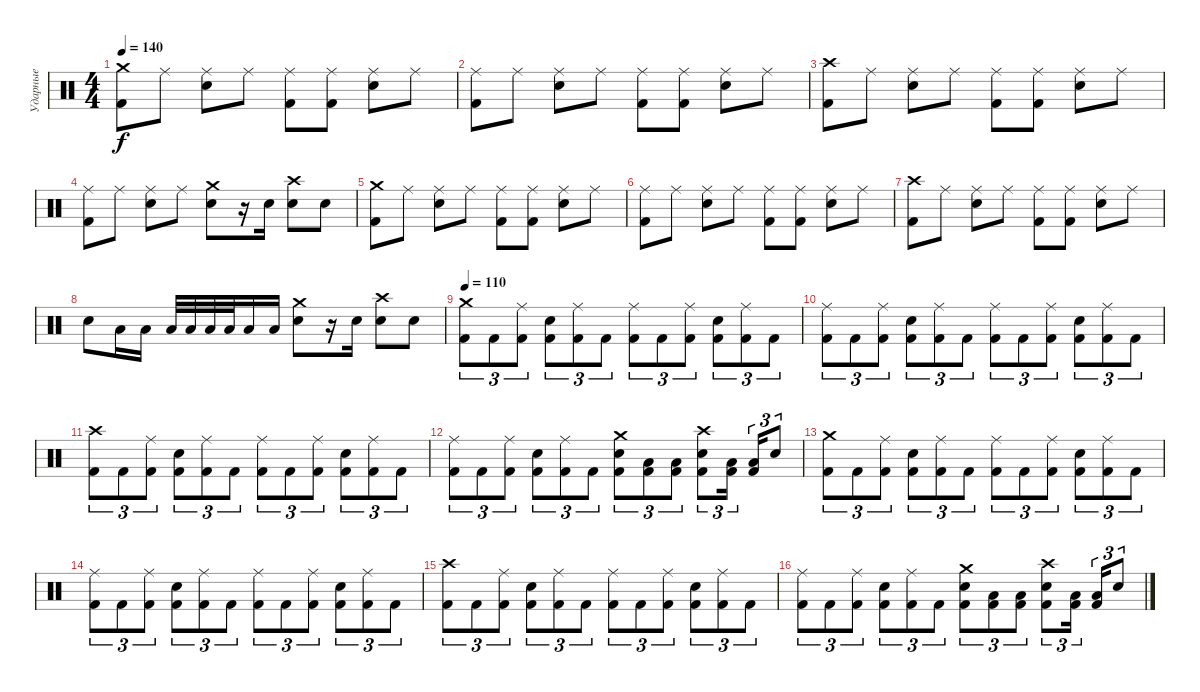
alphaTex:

\track ("Ударные" "Ударные") {instrument percussion}
\staff {score}
\articulation defaults
\ts (4 4)
\tempo 140
\clef neutral
\ks c
("Crash medium (hit)" "Kick (hit) 2").8{dy f} "Ride (middle)".8 ("Ride (middle)" "Electric Snare (hit)").8 "Ride (middle)".8 ("Ride (middle)" "Kick (hit) 2").8 ("Ride (middle)" "Kick (hit) 2").8 ("Ride (middle)" "Electric Snare (hit)").8 "Ride (middle)".8 |
("Ride (middle)" "Kick (hit) 2").8 "Ride (middle)".8 ("Ride (middle)" "Electric Snare (hit)").8 "Ride (middle)".8 ("Ride (middle)" "Kick (hit) 2").8 ("Ride (middle)" "Kick (hit) 2").8 ("Ride (middle)" "Electric Snare (hit)").8 "Ride (middle)".8 |
("Crash high (hit)" "Kick (hit) 2").8 "Ride (middle)".8 ("Ride (middle)" "Electric Snare (hit)").8 "Ride (middle)".8 ("Ride (middle)" "Kick (hit) 2").8 ("Ride (middle)" "Kick (hit) 2").8 ("Ride (middle)" "Electric Snare (hit)").8 "Ride (middle)".8 |
("Ride (middle)" "Kick (hit) 2").8 "Ride (middle)".8 ("Ride (middle)" "Electric Snare (hit)").8 "Ride (middle)".8 ("Crash medium (hit)" "Electric Snare (hit)").8 r.16 "Electric Snare (hit)".16 ("Crash high (hit)" "Electric Snare (hit)").8 "Electric Snare (hit)".8 |
("Crash medium (hit)" "Kick (hit) 2").8 "Ride (middle)".8 ("Ride (middle)" "Electric Snare (hit)").8 "Ride (middle)".8 ("Ride (middle)" "Kick (hit) 2").8 ("Ride (middle)" "Kick (hit) 2").8 ("Ride (middle)" "Electric Snare (hit)").8 "Ride (middle)".8 |
("Ride (middle)" "Kick (hit) 2").8 "Ride (middle)".8 ("Ride (middle)" "Electric Snare (hit)").8 "Ride (middle)".8 ("Ride (middle)" "Kick (hit) 2").8 ("Ride (middle)" "Kick (hit) 2").8 ("Ride (middle)" "Electric Snare (hit)").8 "Ride (middle)".8 |
("Crash high (hit)" "Kick (hit) 2").8 "Ride (middle)".8 ("Ride (middle)" "Electric Snare (hit)").8 "Ride (middle)".8 ("Ride (middle)" "Kick (hit) 2").8 ("Ride (middle)" "Kick (hit) 2").8 ("Ride (middle)" "Electric Snare (hit)").8 "Ride (middle)".8 |
"Electric Snare (hit)".8 "Low Tom (hit)".16 "Low Tom (hit)".16 "Low Tom (hit)".32 "Low Tom (hit)".32 "Low Tom (hit)".32 "Low Tom (hit)".32 "Low Tom (hit)".16 "Low Tom (hit)".16 ("Crash medium (hit)" "Electric Snare (hit)").8 r.16 "Electric Snare (hit)".16 ("Crash high (hit)" "Electric Snare (hit)").8 "Electric Snare (hit)".8 |
\tempo 110
("Crash medium (hit)" "Kick (hit) 2").8{tu (3 2)} "Kick (hit) 2".8{tu (3 2)} ("Ride (middle)" "Kick (hit) 2").8{tu (3 2)} ("Electric Snare (hit)" "Kick (hit) 2").8{tu (3 2)} ("Ride (middle)" "Kick (hit) 2").8{tu (3 2)} "Kick (hit) 2".8{tu (3 2)} ("Ride (middle)" "Kick (hit) 2").8{tu (3 2)} "Kick (hit) 2".8{tu (3 2)} ("Ride (middle)" "Kick (hit) 2").8{tu (3 2)} ("Electric Snare (hit)" "Kick (hit) 2").8{tu (3 2)} ("Ride (middle)" "Kick (hit) 2").8{tu (3 2)} "Kick (hit) 2".8{tu (3 2)} |
("Ride (middle)" "Kick (hit) 2").8{tu (3 2)} "Kick (hit) 2".8{tu (3 2)} ("Ride (middle)" "Kick (hit) 2").8{tu (3 2)} ("Electric Snare (hit)" "Kick (hit) 2").8{tu (3 2)} ("Ride (middle)" "Kick (hit) 2").8{tu (3 2)} "Kick (hit) 2".8{tu (3 2)} ("Ride (middle)" "Kick (hit) 2").8{tu (3 2)} "Kick (hit) 2".8{tu (3 2)} ("Ride (middle)" "Kick (hit) 2").8{tu (3 2)} ("Electric Snare (hit)" "Kick (hit) 2").8{tu (3 2)} ("Ride (middle)" "Kick (hit) 2").8{tu (3 2)} "Kick (hit) 2".8{tu (3 2)} |
("Crash high (hit)" "Kick (hit) 2").8{tu (3 2)} "Kick (hit) 2".8{tu (3 2)} ("Ride (middle)" "Kick (hit) 2").8{tu (3 2)} ("Electric Snare (hit)" "Kick (hit) 2").8{tu (3 2)} ("Ride (middle)" "Kick (hit) 2").8{tu (3 2)} "Kick (hit) 2".8{tu (3 2)} ("Ride (middle)" "Kick (hit) 2").8{tu (3 2)} "Kick (hit) 2".8{tu (3 2)} ("Ride (middle)" "Kick (hit) 2").8{tu (3 2)} ("Electric Snare (hit)" "Kick (hit) 2").8{tu (3 2)} ("Ride (middle)" "Kick (hit) 2").8{tu (3 2)} "Kick (hit) 2".8{tu (3 2)} |
("Ride (middle)" "Kick (hit) 2").8{tu (3 2)} "Kick (hit) 2".8{tu (3 2)} ("Ride (middle)" "Kick (hit) 2").8{tu (3 2)} ("Electric Snare (hit)" "Kick (hit) 2").8{tu (3 2)} ("Ride (middle)" "Kick (hit) 2").8{tu (3 2)} "Kick (hit) 2".8{tu (3 2)} ("Crash medium (hit)" "Electric Snare (hit)" "Kick (hit) 2").8{tu (3 2)} ("Low Tom (hit)" "Kick (hit) 2").8{tu (3 2)} ("Low Tom (hit)" "Kick (hit) 2").8{tu (3 2)} ("Crash high (hit)" "Electric Snare (hit)" "Kick (hit) 2").8{tu (3 2)} ("Low Tom (hit)" "Kick (hit) 2").16{tu (3 2)} ("Low Tom (hit)" "Kick (hit) 2").16{tu (3 2)} "Electric Snare (hit)".8{tu (3 2)} |
("Crash medium (hit)" "Kick (hit) 2").8{tu (3 2)} "Kick (hit) 2".8{tu (3 2)} ("Ride (middle)" "Kick (hit) 2").8{tu (3 2)} ("Electric Snare (hit)" "Kick (hit) 2").8{tu (3 2)} ("Ride (middle)" "Kick (hit) 2").8{tu (3 2)} "Kick (hit) 2".8{tu (3 2)} ("Ride (middle)" "Kick (hit) 2").8{tu (3 2)} "Kick (hit) 2".8{tu (3 2)} ("Ride (middle)" "Kick (hit) 2").8{tu (3 2)} ("Electric Snare (hit)" "Kick (hit) 2").8{tu (3 2)} ("Ride (middle)" "Kick (hit) 2").8{tu (3 2)} "Kick (hit) 2".8{tu (3 2)} |
("Ride (middle)" "Kick (hit) 2").8{tu (3 2)} "Kick (hit) 2".8{tu (3 2)} ("Ride (middle)" "Kick (hit) 2").8{tu (3 2)} ("Electric Snare (hit)" "Kick (hit) 2").8{tu (3 2)} ("Ride (middle)" "Kick (hit) 2").8{tu (3 2)} "Kick (hit) 2".8{tu (3 2)} ("Ride (middle)" "Kick (hit) 2").8{tu (3 2)} "Kick (hit) 2".8{tu (3 2)} ("Ride (middle)" "Kick (hit) 2").8{tu (3 2)} ("Electric Snare (hit)" "Kick (hit) 2").8{tu (3 2)} ("Ride (middle)" "Kick (hit) 2").8{tu (3 2)} "Kick (hit) 2".8{tu (3 2)} |
("Crash high (hit)" "Kick (hit) 2").8{tu (3 2)} "Kick (hit) 2".8{tu (3 2)} ("Ride (middle)" "Kick (hit) 2").8{tu (3 2)} ("Electric Snare (hit)" "Kick (hit) 2").8{tu (3 2)} ("Ride (middle)" "Kick (hit) 2").8{tu (3 2)} "Kick (hit) 2".8{tu (3 2)} ("Ride (middle)" "Kick (hit) 2").8{tu (3 2)} "Kick (hit) 2".8{tu (3 2)} ("Ride (middle)" "Kick (hit) 2").8{tu (3 2)} ("Electric Snare (hit)" "Kick (hit) 2").8{tu (3 2)} ("Ride (middle)" "Kick (hit) 2").8{tu (3 2)} "Kick (hit) 2".8{tu (3 2)} |
("Ride (middle)" "Kick (hit) 2").8{tu (3 2)} "Kick (hit) 2".8{tu (3 2)} ("Ride (middle)" "Kick (hit) 2").8{tu (3 2)} ("Electric Snare (hit)" "Kick (hit) 2").8{tu (3 2)} ("Ride (middle)" "Kick (hit) 2").8{tu (3 2)} "Kick (hit) 2".8{tu (3 2)} ("Crash medium (hit)" "Electric Snare (hit)" "Kick (hit) 2").8{tu (3 2)} ("Low Tom (hit)" "Kick (hit) 2").8{tu (3 2)} ("Low Tom (hit)" "Kick (hit) 2").8{tu (3 2)} ("Crash high (hit)" "Electric Snare (hit)" "Kick (hit) 2").8{tu (3 2)} ("Low Tom (hit)" "Kick (hit) 2").16{tu (3 2)} ("Low Tom (hit)" "Kick (hit) 2").16{tu (3 2)} "Electric Snare (hit)".8{tu (3 2)}
